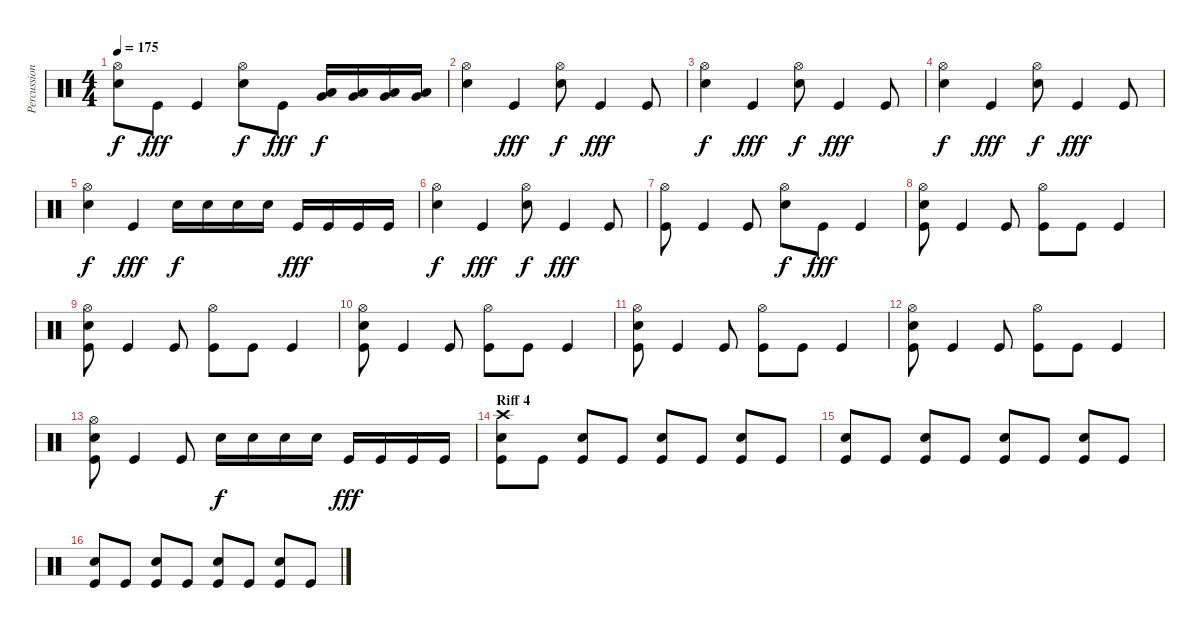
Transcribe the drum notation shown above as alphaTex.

\track ("Percussions" "Percussion") {instrument percussion}
\staff {score}
\articulation defaults
\ts (4 4)
\tempo 175
\clef neutral
\ks c
("Hi-Hat (open)" "Electric Snare (hit)").8{dy f} "Kick (hit)".8{dy fff} "Kick (hit)".4 ("Hi-Hat (open)" "Electric Snare (hit)").8{dy f} "Kick (hit)".8{dy fff} ("Low Floor Tom (hit)" "Very Low Tom (hit)").16{dy f} ("Low Floor Tom (hit)" "Very Low Tom (hit)").16 ("Low Floor Tom (hit)" "Very Low Tom (hit)").16 ("Low Floor Tom (hit)" "Very Low Tom (hit)").16 |
("Hi-Hat (open)" "Electric Snare (hit)").4 "Kick (hit)".4{dy fff} ("Hi-Hat (open)" "Electric Snare (hit)").8{dy f} "Kick (hit)".4{dy fff} "Kick (hit)".8 |
("Hi-Hat (open)" "Electric Snare (hit)").4{dy f} "Kick (hit)".4{dy fff} ("Hi-Hat (open)" "Electric Snare (hit)").8{dy f} "Kick (hit)".4{dy fff} "Kick (hit)".8 |
("Hi-Hat (open)" "Electric Snare (hit)").4{dy f} "Kick (hit)".4{dy fff} ("Hi-Hat (open)" "Electric Snare (hit)").8{dy f} "Kick (hit)".4{dy fff} "Kick (hit)".8 |
("Hi-Hat (open)" "Electric Snare (hit)").4{dy f} "Kick (hit)".4{dy fff} "Electric Snare (hit)".16{dy f} "Electric Snare (hit)".16 "Electric Snare (hit)".16 "Electric Snare (hit)".16 "Kick (hit)".16{dy fff} "Kick (hit)".16 "Kick (hit)".16 "Kick (hit)".16 |
("Hi-Hat (open)" "Electric Snare (hit)").4{dy f} "Kick (hit)".4{dy fff} ("Hi-Hat (open)" "Electric Snare (hit)").8{dy f} "Kick (hit)".4{dy fff} "Kick (hit)".8 |
("Hi-Hat (open)" "Kick (hit)").8 "Kick (hit)".4 "Kick (hit)".8 ("Hi-Hat (open)" "Electric Snare (hit)").8{dy f} "Kick (hit)".8{dy fff} "Kick (hit)".4 |
("Hi-Hat (open)" "Electric Snare (hit)" "Kick (hit)").8 "Kick (hit)".4 "Kick (hit)".8 ("Hi-Hat (open)" "Kick (hit)").8 "Kick (hit)".8 "Kick (hit)".4 |
("Hi-Hat (open)" "Electric Snare (hit)" "Kick (hit)").8 "Kick (hit)".4 "Kick (hit)".8 ("Hi-Hat (open)" "Kick (hit)").8 "Kick (hit)".8 "Kick (hit)".4 |
("Hi-Hat (open)" "Electric Snare (hit)" "Kick (hit)").8 "Kick (hit)".4 "Kick (hit)".8 ("Hi-Hat (open)" "Kick (hit)").8 "Kick (hit)".8 "Kick (hit)".4 |
("Hi-Hat (open)" "Electric Snare (hit)" "Kick (hit)").8 "Kick (hit)".4 "Kick (hit)".8 ("Hi-Hat (open)" "Kick (hit)").8 "Kick (hit)".8 "Kick (hit)".4 |
("Hi-Hat (open)" "Electric Snare (hit)" "Kick (hit)").8 "Kick (hit)".4 "Kick (hit)".8 ("Hi-Hat (open)" "Kick (hit)").8 "Kick (hit)".8 "Kick (hit)".4 |
("Hi-Hat (open)" "Electric Snare (hit)" "Kick (hit)").8 "Kick (hit)".4 "Kick (hit)".8 "Electric Snare (hit)".16{dy f} "Electric Snare (hit)".16 "Electric Snare (hit)".16 "Electric Snare (hit)".16 "Kick (hit)".16{dy fff} "Kick (hit)".16 "Kick (hit)".16 "Kick (hit)".16 |
\section ("" "Riff 4")
("Crash high (hit)" "Electric Snare (hit)" "Kick (hit)").8 "Kick (hit)".8 ("Electric Snare (hit)" "Kick (hit)").8 "Kick (hit)".8 ("Electric Snare (hit)" "Kick (hit)").8 "Kick (hit)".8 ("Electric Snare (hit)" "Kick (hit)").8 "Kick (hit)".8 |
("Electric Snare (hit)" "Kick (hit)").8 "Kick (hit)".8 ("Electric Snare (hit)" "Kick (hit)").8 "Kick (hit)".8 ("Electric Snare (hit)" "Kick (hit)").8 "Kick (hit)".8 ("Electric Snare (hit)" "Kick (hit)").8 "Kick (hit)".8 |
("Electric Snare (hit)" "Kick (hit)").8 "Kick (hit)".8 ("Electric Snare (hit)" "Kick (hit)").8 "Kick (hit)".8 ("Electric Snare (hit)" "Kick (hit)").8 "Kick (hit)".8 ("Electric Snare (hit)" "Kick (hit)").8 "Kick (hit)".8
